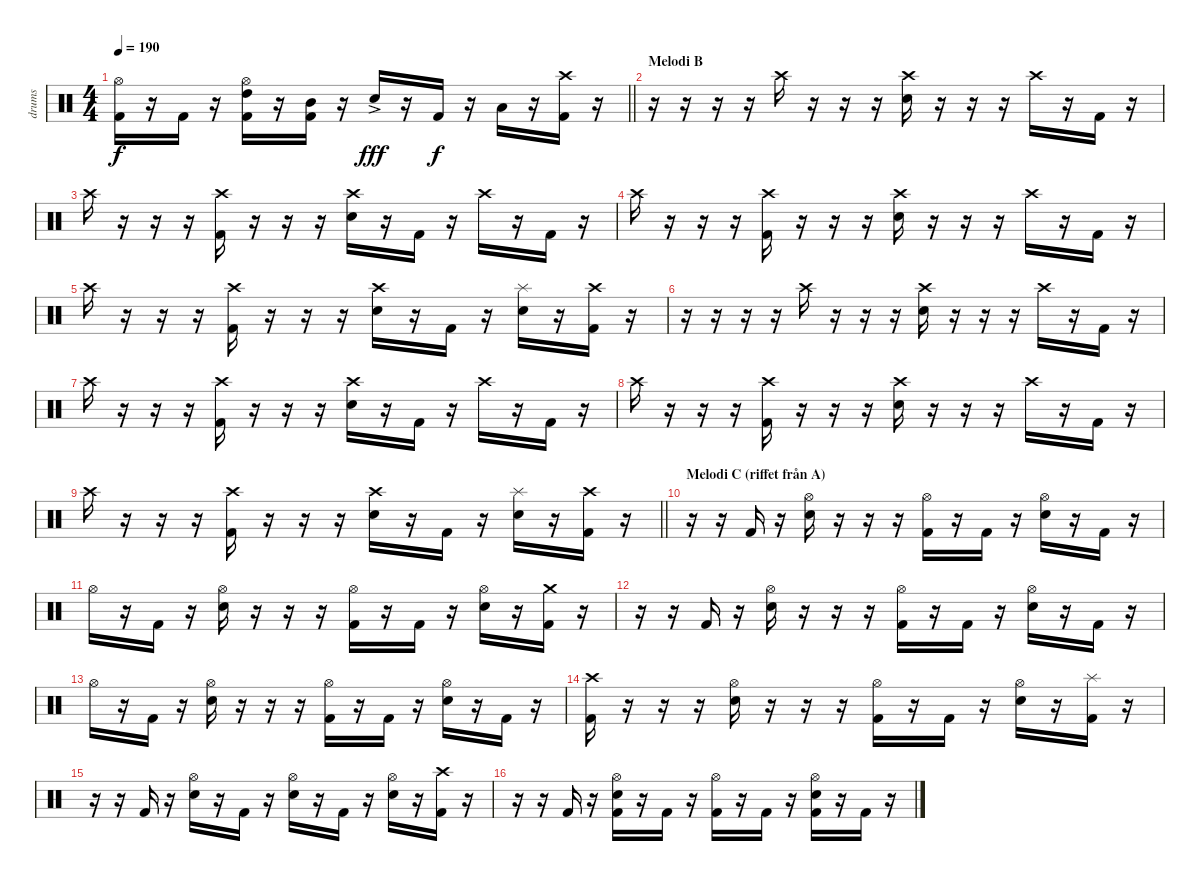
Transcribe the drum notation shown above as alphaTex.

\track ("drums" "drums") {instrument percussion}
\staff {score}
\articulation defaults
\ts (4 4)
\tempo 190
\clef neutral
\barLineRight lightlight
\ks c
("Hi-Hat (open)" "Kick (hit) 2").16{dy f} r.16 "Kick (hit) 2".16 r.16 ("Hi-Hat (open)" "High Tom (hit)" "Kick (hit) 2").16 r.16 ("Mid Tom (hit)" "Kick (hit) 2").16 r.16 "Electric Snare (hit)"{ac}.16{dy fff} r.16 "Kick (hit) 2".16{dy f} r.16 "Low Tom (hit)".16 r.16 ("Crash high (hit)" "Kick (hit) 2").16 r.16 |
\section ("" "Melodi B")
r.16 r.16 r.16 r.16 "Crash high (hit)".16 r.16 r.16 r.16 ("Crash high (hit)" "Electric Snare (hit)").16 r.16 r.16 r.16 "Crash high (hit)".16 r.16 "Kick (hit) 2".16 r.16 |
"Crash high (hit)".16 r.16 r.16 r.16 ("Crash high (hit)" "Kick (hit) 2").16 r.16 r.16 r.16 ("Crash high (hit)" "Electric Snare (hit)").16 r.16 "Kick (hit) 2".16 r.16 "Crash high (hit)".16 r.16 "Kick (hit) 2".16 r.16 |
"Crash high (hit)".16 r.16 r.16 r.16 ("Crash high (hit)" "Kick (hit) 2").16 r.16 r.16 r.16 ("Crash high (hit)" "Electric Snare (hit)").16 r.16 r.16 r.16 "Crash high (hit)".16 r.16 "Kick (hit) 2".16 r.16 |
"Crash high (hit)".16 r.16 r.16 r.16 ("Crash high (hit)" "Kick (hit) 2").16 r.16 r.16 r.16 ("Crash high (hit)" "Electric Snare (hit)").16 r.16 "Kick (hit) 2".16 r.16 ("Splash (hit)" "Electric Snare (hit)").16 r.16 ("Crash high (hit)" "Kick (hit) 2").16 r.16 |
r.16 r.16 r.16 r.16 "Crash high (hit)".16 r.16 r.16 r.16 ("Crash high (hit)" "Electric Snare (hit)").16 r.16 r.16 r.16 "Crash high (hit)".16 r.16 "Kick (hit) 2".16 r.16 |
"Crash high (hit)".16 r.16 r.16 r.16 ("Crash high (hit)" "Kick (hit) 2").16 r.16 r.16 r.16 ("Crash high (hit)" "Electric Snare (hit)").16 r.16 "Kick (hit) 2".16 r.16 "Crash high (hit)".16 r.16 "Kick (hit) 2".16 r.16 |
"Crash high (hit)".16 r.16 r.16 r.16 ("Crash high (hit)" "Kick (hit) 2").16 r.16 r.16 r.16 ("Crash high (hit)" "Electric Snare (hit)").16 r.16 r.16 r.16 "Crash high (hit)".16 r.16 "Kick (hit) 2".16 r.16 |
\barLineRight lightlight "Crash high (hit)".16
r.16 r.16 r.16 ("Crash high (hit)" "Kick (hit) 2").16 r.16 r.16 r.16 ("Crash high (hit)" "Electric Snare (hit)").16 r.16 "Kick (hit) 2".16 r.16 ("Splash (hit)" "Electric Snare (hit)").16 r.16 ("Crash high (hit)" "Kick (hit) 2").16 r.16 |
\section ("" "Melodi C (riffet från A)")
r.16 r.16 "Kick (hit) 2".16 r.16 ("Hi-Hat (open)" "Electric Snare (hit)").16 r.16 r.16 r.16 ("Hi-Hat (open)" "Kick (hit) 2").16 r.16 "Kick (hit) 2".16 r.16 ("Hi-Hat (open)" "Electric Snare (hit)").16 r.16 "Kick (hit) 2".16 r.16 |
"Hi-Hat (open)".16 r.16 "Kick (hit) 2".16 r.16 ("Hi-Hat (open)" "Electric Snare (hit)").16 r.16 r.16 r.16 ("Hi-Hat (open)" "Kick (hit) 2").16 r.16 "Kick (hit) 2".16 r.16 ("Hi-Hat (open)" "Electric Snare (hit)").16 r.16 ("Crash medium (hit)" "Kick (hit) 2").16 r.16 |
r.16 r.16 "Kick (hit) 2".16 r.16 ("Hi-Hat (open)" "Electric Snare (hit)").16 r.16 r.16 r.16 ("Hi-Hat (open)" "Kick (hit) 2").16 r.16 "Kick (hit) 2".16 r.16 ("Hi-Hat (open)" "Electric Snare (hit)").16 r.16 "Kick (hit) 2".16 r.16 |
"Hi-Hat (open)".16 r.16 "Kick (hit) 2".16 r.16 ("Hi-Hat (open)" "Electric Snare (hit)").16 r.16 r.16 r.16 ("Hi-Hat (open)" "Kick (hit) 2").16 r.16 "Kick (hit) 2".16 r.16 ("Hi-Hat (open)" "Electric Snare (hit)").16 r.16 "Kick (hit) 2".16 r.16 |
("Crash high (hit)" "Kick (hit) 2").16 r.16 r.16 r.16 ("Hi-Hat (open)" "Electric Snare (hit)").16 r.16 r.16 r.16 ("Hi-Hat (open)" "Kick (hit) 2").16 r.16 "Kick (hit) 2".16 r.16 ("Hi-Hat (open)" "Electric Snare (hit)").16 r.16 ("Splash (hit)" "Kick (hit) 2").16 r.16 |
r.16 r.16 "Kick (hit) 2".16 r.16 ("Hi-Hat (open)" "Electric Snare (hit)").16 r.16 "Kick (hit) 2".16 r.16 ("Hi-Hat (open)" "Electric Snare (hit)").16 r.16 "Kick (hit) 2".16 r.16 ("Hi-Hat (open)" "Electric Snare (hit)").16 r.16 ("Crash high (hit)" "Kick (hit) 2").16 r.16 |
r.16 r.16 "Kick (hit) 2".16 r.16 ("Hi-Hat (open)" "Electric Snare (hit)" "Kick (hit) 2").16 r.16 "Kick (hit) 2".16 r.16 ("Hi-Hat (open)" "Kick (hit) 2").16 r.16 "Kick (hit) 2".16 r.16 ("Hi-Hat (open)" "Electric Snare (hit)" "Kick (hit) 2").16 r.16 "Kick (hit) 2".16 r.16
